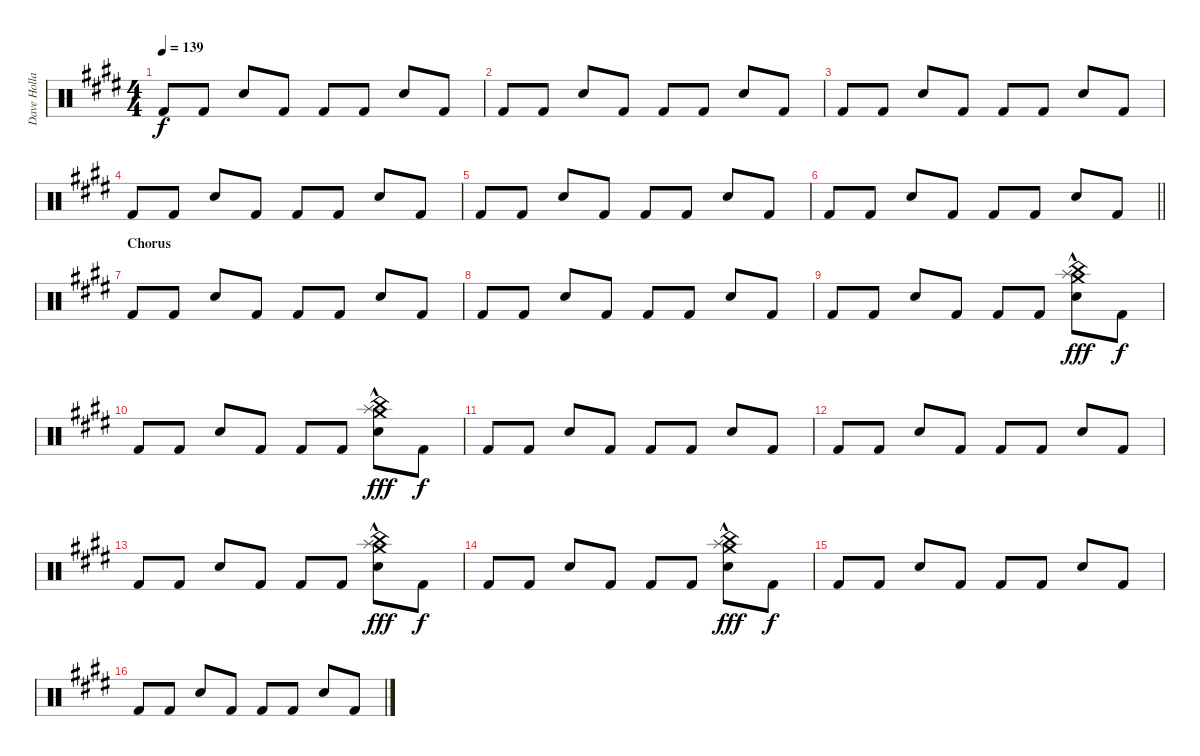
\track ("Dave Holland" "Dave Holla") {instrument percussion}
\staff {score}
\articulation defaults
\ts (4 4)
\tempo 139
\clef neutral
\ks c#minor "Kick (hit) 2".8{dy f} "Kick (hit) 2".8 "Snare (hit) 2".8 "Kick (hit) 2".8 "Kick (hit) 2".8 "Kick (hit) 2".8 "Snare (hit) 2".8 "Kick (hit) 2".8
|
"Kick (hit) 2".8 "Kick (hit) 2".8 "Snare (hit) 2".8 "Kick (hit) 2".8 "Kick (hit) 2".8 "Kick (hit) 2".8 "Snare (hit) 2".8 "Kick (hit) 2".8 |
"Kick (hit) 2".8 "Kick (hit) 2".8 "Snare (hit) 2".8 "Kick (hit) 2".8 "Kick (hit) 2".8 "Kick (hit) 2".8 "Snare (hit) 2".8 "Kick (hit) 2".8 |
"Kick (hit) 2".8 "Kick (hit) 2".8 "Snare (hit) 2".8 "Kick (hit) 2".8 "Kick (hit) 2".8 "Kick (hit) 2".8 "Snare (hit) 2".8 "Kick (hit) 2".8 |
"Kick (hit) 2".8 "Kick (hit) 2".8 "Snare (hit) 2".8 "Kick (hit) 2".8 "Kick (hit) 2".8 "Kick (hit) 2".8 "Snare (hit) 2".8 "Kick (hit) 2".8 |
\barLineRight lightlight "Kick (hit) 2".8 "Kick (hit) 2".8 "Snare (hit) 2".8 "Kick (hit) 2".8 "Kick (hit) 2".8 "Kick (hit) 2".8 "Snare (hit) 2".8 "Kick (hit) 2".8
|
\section ("" "Chorus")
"Kick (hit) 2".8 "Kick (hit) 2".8 "Snare (hit) 2".8 "Kick (hit) 2".8 "Kick (hit) 2".8 "Kick (hit) 2".8 "Snare (hit) 2".8 "Kick (hit) 2".8 |
"Kick (hit) 2".8 "Kick (hit) 2".8 "Snare (hit) 2".8 "Kick (hit) 2".8 "Kick (hit) 2".8 "Kick (hit) 2".8 "Snare (hit) 2".8 "Kick (hit) 2".8 |
"Kick (hit) 2".8 "Kick (hit) 2".8 "Snare (hit) 2".8 "Kick (hit) 2".8 "Kick (hit) 2".8 "Kick (hit) 2".8 ("Crash medium (hit)" "China (hit)" "Splash (hit)"{hac} "Snare (hit) 2").8{dy fff} "Kick (hit) 2".8{dy f} |
"Kick (hit) 2".8 "Kick (hit) 2".8 "Snare (hit) 2".8 "Kick (hit) 2".8 "Kick (hit) 2".8 "Kick (hit) 2".8 ("China (hit)" "Splash (hit)"{hac} "Crash medium (hit)" "Snare (hit) 2").8{dy fff} "Kick (hit) 2".8{dy f} |
"Kick (hit) 2".8 "Kick (hit) 2".8 "Snare (hit) 2".8 "Kick (hit) 2".8 "Kick (hit) 2".8 "Kick (hit) 2".8 "Snare (hit) 2".8 "Kick (hit) 2".8 |
"Kick (hit) 2".8 "Kick (hit) 2".8 "Snare (hit) 2".8 "Kick (hit) 2".8 "Kick (hit) 2".8 "Kick (hit) 2".8 "Snare (hit) 2".8 "Kick (hit) 2".8 |
"Kick (hit) 2".8 "Kick (hit) 2".8 "Snare (hit) 2".8 "Kick (hit) 2".8 "Kick (hit) 2".8 "Kick (hit) 2".8 ("Crash medium (hit)" "China (hit)" "Splash (hit)"{hac} "Snare (hit) 2").8{dy fff} "Kick (hit) 2".8{dy f} |
"Kick (hit) 2".8 "Kick (hit) 2".8 "Snare (hit) 2".8 "Kick (hit) 2".8 "Kick (hit) 2".8 "Kick (hit) 2".8 ("China (hit)" "Splash (hit)"{hac} "Crash medium (hit)" "Snare (hit) 2").8{dy fff} "Kick (hit) 2".8{dy f} |
"Kick (hit) 2".8 "Kick (hit) 2".8 "Snare (hit) 2".8 "Kick (hit) 2".8 "Kick (hit) 2".8 "Kick (hit) 2".8 "Snare (hit) 2".8 "Kick (hit) 2".8 |
"Kick (hit) 2".8 "Kick (hit) 2".8 "Snare (hit) 2".8 "Kick (hit) 2".8 "Kick (hit) 2".8 "Kick (hit) 2".8 "Snare (hit) 2".8 "Kick (hit) 2".8
